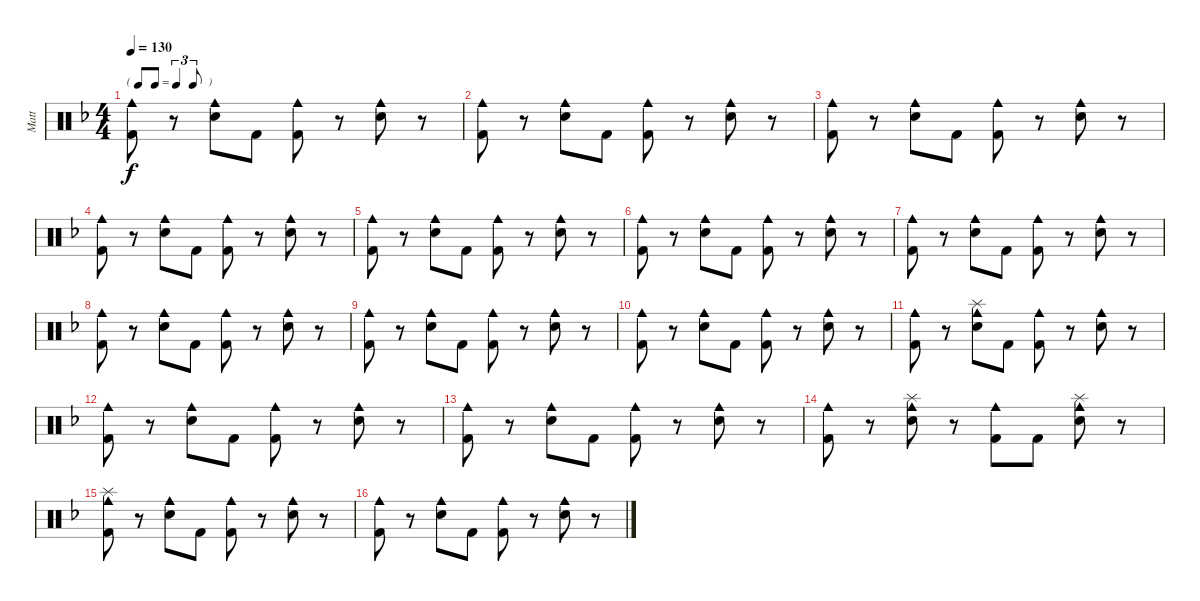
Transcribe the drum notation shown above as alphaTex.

\track ("Matt" "Matt") {instrument percussion}
\staff {score}
\articulation defaults
\ts (4 4)
\tf triplet8th
\tempo 130
\clef neutral
\ks f
("Cowbell medium (hit)" "Kick (hit) 2").8{dy f} r.8 ("Cowbell medium (hit)" "Snare (hit) 2").8 "Kick (hit) 2".8 ("Cowbell medium (hit)" "Kick (hit) 2").8 r.8 ("Cowbell medium (hit)" "Snare (hit) 2").8 r.8 |
("Cowbell medium (hit)" "Kick (hit) 2").8 r.8 ("Cowbell medium (hit)" "Snare (hit) 2").8 "Kick (hit) 2".8 ("Cowbell medium (hit)" "Kick (hit) 2").8 r.8 ("Cowbell medium (hit)" "Snare (hit) 2").8 r.8 |
("Cowbell medium (hit)" "Kick (hit) 2").8 r.8 ("Cowbell medium (hit)" "Snare (hit) 2").8 "Kick (hit) 2".8 ("Cowbell medium (hit)" "Kick (hit) 2").8 r.8 ("Cowbell medium (hit)" "Snare (hit) 2").8 r.8 |
("Cowbell medium (hit)" "Kick (hit) 2").8 r.8 ("Cowbell medium (hit)" "Snare (hit) 2").8 "Kick (hit) 2".8 ("Cowbell medium (hit)" "Kick (hit) 2").8 r.8 ("Cowbell medium (hit)" "Snare (hit) 2").8 r.8 |
("Cowbell medium (hit)" "Kick (hit) 2").8 r.8 ("Cowbell medium (hit)" "Snare (hit) 2").8 "Kick (hit) 2".8 ("Cowbell medium (hit)" "Kick (hit) 2").8 r.8 ("Cowbell medium (hit)" "Snare (hit) 2").8 r.8 |
("Cowbell medium (hit)" "Kick (hit) 2").8 r.8 ("Cowbell medium (hit)" "Snare (hit) 2").8 "Kick (hit) 2".8 ("Cowbell medium (hit)" "Kick (hit) 2").8 r.8 ("Cowbell medium (hit)" "Snare (hit) 2").8 r.8 |
("Cowbell medium (hit)" "Kick (hit) 2").8 r.8 ("Cowbell medium (hit)" "Snare (hit) 2").8 "Kick (hit) 2".8 ("Cowbell medium (hit)" "Kick (hit) 2").8 r.8 ("Cowbell medium (hit)" "Snare (hit) 2").8 r.8 |
("Cowbell medium (hit)" "Kick (hit) 2").8 r.8 ("Cowbell medium (hit)" "Snare (hit) 2").8 "Kick (hit) 2".8 ("Cowbell medium (hit)" "Kick (hit) 2").8 r.8 ("Cowbell medium (hit)" "Snare (hit) 2").8 r.8 |
("Cowbell medium (hit)" "Kick (hit) 2").8 r.8 ("Cowbell medium (hit)" "Snare (hit) 2").8 "Kick (hit) 2".8 ("Cowbell medium (hit)" "Kick (hit) 2").8 r.8 ("Cowbell medium (hit)" "Snare (hit) 2").8 r.8 |
("Cowbell medium (hit)" "Kick (hit) 2").8 r.8 ("Cowbell medium (hit)" "Snare (hit) 2").8 "Kick (hit) 2".8 ("Cowbell medium (hit)" "Kick (hit) 2").8 r.8 ("Cowbell medium (hit)" "Snare (hit) 2").8 r.8 |
("Cowbell medium (hit)" "Kick (hit) 2").8 r.8 ("Cowbell medium (hit)" "Snare (hit) 2" "Splash (hit)").8 "Kick (hit) 2".8 ("Cowbell medium (hit)" "Kick (hit) 2").8 r.8 ("Cowbell medium (hit)" "Snare (hit) 2").8 r.8 |
("Cowbell medium (hit)" "Kick (hit) 2").8 r.8 ("Cowbell medium (hit)" "Snare (hit) 2").8 "Kick (hit) 2".8 ("Cowbell medium (hit)" "Kick (hit) 2").8 r.8 ("Cowbell medium (hit)" "Snare (hit) 2").8 r.8 |
("Cowbell medium (hit)" "Kick (hit) 2").8 r.8 ("Cowbell medium (hit)" "Snare (hit) 2").8 "Kick (hit) 2".8 ("Cowbell medium (hit)" "Kick (hit) 2").8 r.8 ("Cowbell medium (hit)" "Snare (hit) 2").8 r.8 |
("Cowbell medium (hit)" "Kick (hit) 2").8 r.8 ("Cowbell medium (hit)" "Snare (hit) 2" "Splash (hit)").8 r.8 ("Cowbell medium (hit)" "Kick (hit) 2").8 "Kick (hit) 2".8 ("Cowbell medium (hit)" "Snare (hit) 2" "Splash (hit)").8 r.8 |
("Cowbell medium (hit)" "Kick (hit) 2" "Splash (hit)").8 r.8 ("Cowbell medium (hit)" "Snare (hit) 2").8 "Kick (hit) 2".8 ("Cowbell medium (hit)" "Kick (hit) 2").8 r.8 ("Cowbell medium (hit)" "Snare (hit) 2").8 r.8 |
("Cowbell medium (hit)" "Kick (hit) 2").8 r.8 ("Cowbell medium (hit)" "Snare (hit) 2").8 "Kick (hit) 2".8 ("Cowbell medium (hit)" "Kick (hit) 2").8 r.8 ("Cowbell medium (hit)" "Snare (hit) 2").8 r.8
